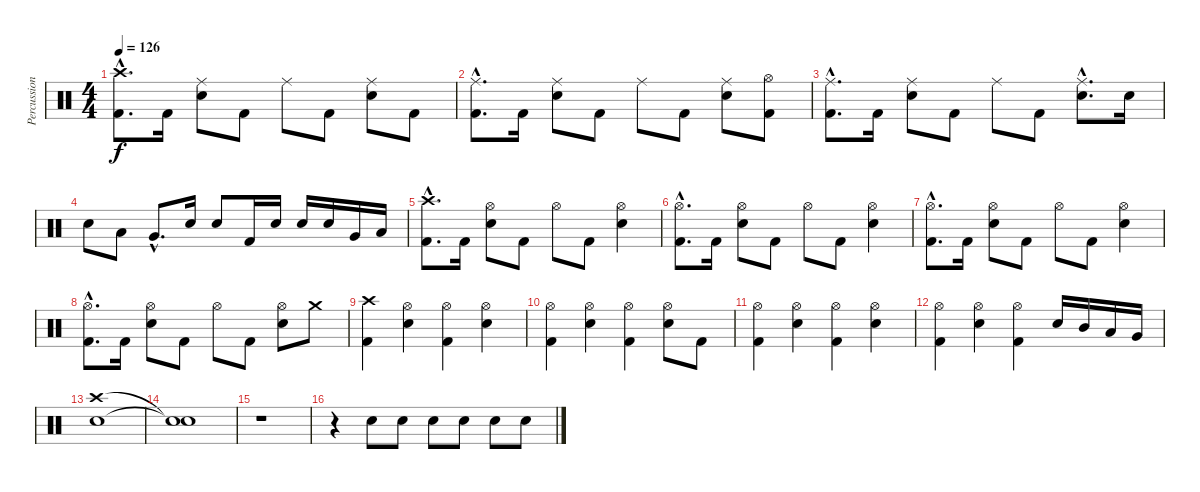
\track ("Percussion" "Percussion") {instrument percussion}
\staff {score}
\articulation defaults
\ts (4 4)
\tempo 126
\clef neutral
\ks c
("Crash high (hit)"{hac} "Kick (hit) 2"{hac}).8{d dy f} "Kick (hit) 2".16 ("Ride (middle)" "Snare (hit) 2").8 "Kick (hit) 2".8 "Ride (middle)".8 "Kick (hit) 2".8 ("Ride (middle)" "Snare (hit) 2").8 "Kick (hit) 2".8 |
("Ride (middle)"{hac} "Kick (hit) 2"{hac}).8{d} "Kick (hit) 2".16 ("Ride (middle)" "Snare (hit) 2").8 "Kick (hit) 2".8 "Ride (middle)".8 "Kick (hit) 2".8 ("Ride (middle)" "Snare (hit) 2").8 ("Hi-Hat (open)" "Kick (hit) 2").8 |
("Ride (middle)"{hac} "Kick (hit) 2"{hac}).8{d} "Kick (hit) 2".16 ("Ride (middle)" "Snare (hit) 2").8 "Kick (hit) 2".8 "Ride (middle)".8 "Kick (hit) 2".8 ("Ride (middle)"{hac} "Snare (hit) 2"{hac}).8{d} "Snare (hit) 2".16 |
"Snare (hit) 2".8 "Low Tom (hit)".8 "Very Low Tom (hit)"{hac}.8{d} "Snare (hit) 2".16 "Snare (hit) 2".8 "Kick (hit) 2".16 "Snare (hit) 2".16 "Snare (hit) 2".16 "Snare (hit) 2".16 "Very Low Tom (hit)".16 "Low Floor Tom (hit)".16 |
("Crash high (hit)"{hac} "Kick (hit) 2"{hac}).8{d} "Kick (hit) 2".16 ("Hi-Hat (open)" "Snare (hit) 2").8 "Kick (hit) 2".8 "Hi-Hat (open)".8 "Kick (hit) 2".8 ("Hi-Hat (open)" "Snare (hit) 2").4 |
("Hi-Hat (open)"{hac} "Kick (hit) 2"{hac}).8{d} "Kick (hit) 2".16 ("Hi-Hat (open)" "Snare (hit) 2").8 "Kick (hit) 2".8 "Hi-Hat (open)".8 "Kick (hit) 2".8 ("Hi-Hat (open)" "Snare (hit) 2").4 |
("Hi-Hat (open)"{hac} "Kick (hit) 2"{hac}).8{d} "Kick (hit) 2".16 ("Hi-Hat (open)" "Snare (hit) 2").8 "Kick (hit) 2".8 "Hi-Hat (open)".8 "Kick (hit) 2".8 ("Hi-Hat (open)" "Snare (hit) 2").4 |
("Hi-Hat (open)"{hac} "Kick (hit) 2"{hac}).8{d} "Kick (hit) 2".16 ("Hi-Hat (open)" "Snare (hit) 2").8 "Kick (hit) 2".8 "Hi-Hat (open)".8 "Kick (hit) 2".8 ("Hi-Hat (open)" "Snare (hit) 2").8 "Crash medium (hit)".8 |
("Crash high (hit)" "Kick (hit) 2").4 ("Hi-Hat (open)" "Snare (hit) 2").4 ("Hi-Hat (open)" "Kick (hit) 2").4 ("Hi-Hat (open)" "Snare (hit) 2").4 |
("Hi-Hat (open)" "Kick (hit) 2").4 ("Hi-Hat (open)" "Snare (hit) 2").4 ("Hi-Hat (open)" "Kick (hit) 2").4 ("Hi-Hat (open)" "Snare (hit) 2").8 "Kick (hit) 2".8 |
("Hi-Hat (open)" "Kick (hit) 2").4 ("Hi-Hat (open)" "Snare (hit) 2").4 ("Hi-Hat (open)" "Kick (hit) 2").4 ("Hi-Hat (open)" "Snare (hit) 2").4 |
("Hi-Hat (open)" "Kick (hit) 2").4 ("Hi-Hat (open)" "Snare (hit) 2").4 ("Hi-Hat (open)" "Kick (hit) 2").4 "Snare (hit) 2".16 "Mid Tom (hit)".16 "Low Tom (hit)".16 "Very Low Tom (hit)".16 |
("Crash high (hit)" "Snare (hit) 2").1 |
("Snare (hit)"{t} "Snare (hit)"{t}).1 |
r.1 |
r.4 "Snare (hit) 2".8 "Snare (hit) 2".8 "Snare (hit) 2".8 "Snare (hit) 2".8 "Snare (hit) 2".8 "Snare (hit) 2".8
